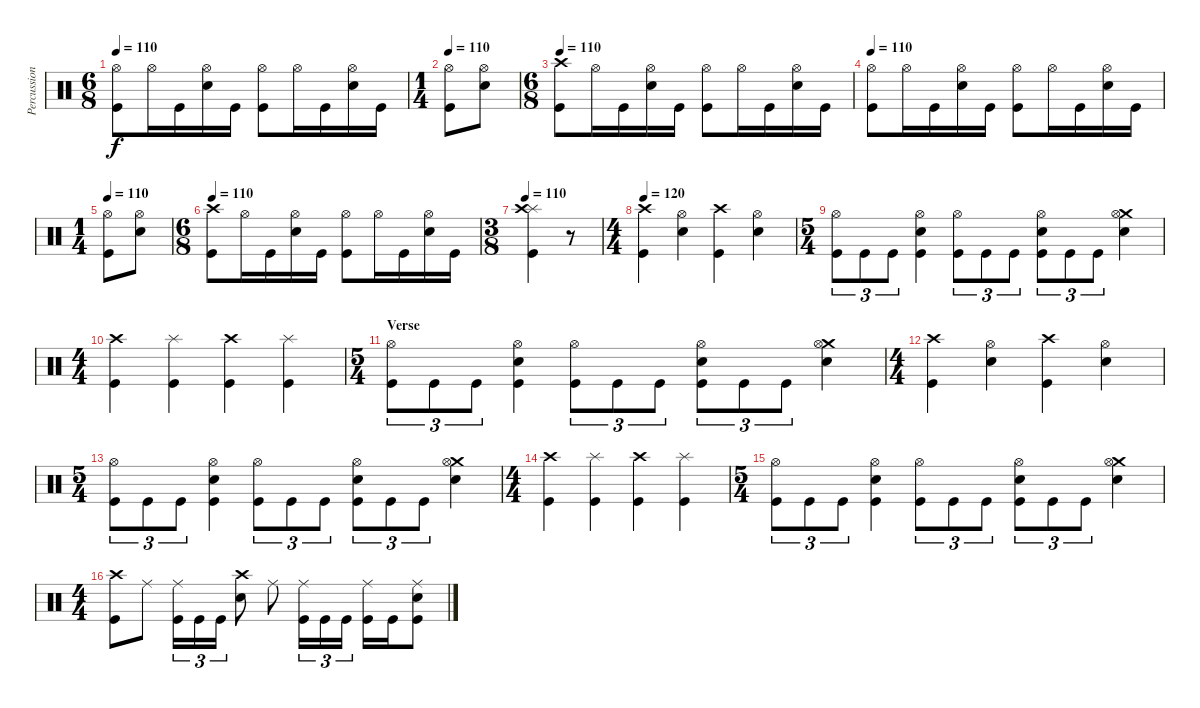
\track ("Percussion" "Percussion") {instrument percussion}
\staff {score}
\articulation defaults
\ts (6 8)
\tempo 110
\clef neutral
\ks c
("Hi-Hat (open)" "Kick (hit)").8{dy f} "Hi-Hat (open)".16 "Kick (hit)".16 ("Hi-Hat (open)" "Snare (hit) 2").16 "Kick (hit)".16 ("Hi-Hat (open)" "Kick (hit)").8 "Hi-Hat (open)".16 "Kick (hit)".16 ("Hi-Hat (open)" "Snare (hit) 2").16 "Kick (hit)".16 |
\ts (1 4)
\tempo 110
("Hi-Hat (open)" "Kick (hit)").8 ("Hi-Hat (open)" "Snare (hit) 2").8 |
\ts (6 8)
\tempo 110
("Crash high (hit)" "Kick (hit)").8 "Hi-Hat (open)".16 "Kick (hit)".16 ("Hi-Hat (open)" "Snare (hit) 2").16 "Kick (hit)".16 ("Hi-Hat (open)" "Kick (hit)").8 "Hi-Hat (open)".16 "Kick (hit)".16 ("Hi-Hat (open)" "Snare (hit) 2").16 "Kick (hit)".16 |
\tempo 110
("Hi-Hat (open)" "Kick (hit)").8 "Hi-Hat (open)".16 "Kick (hit)".16 ("Hi-Hat (open)" "Snare (hit) 2").16 "Kick (hit)".16 ("Hi-Hat (open)" "Kick (hit)").8 "Hi-Hat (open)".16 "Kick (hit)".16 ("Hi-Hat (open)" "Snare (hit) 2").16 "Kick (hit)".16 |
\ts (1 4)
\tempo 110
("Hi-Hat (open)" "Kick (hit)").8 ("Hi-Hat (open)" "Snare (hit) 2").8 |
\ts (6 8)
\tempo 110
("Crash high (hit)" "Kick (hit)").8 "Hi-Hat (open)".16 "Kick (hit)".16 ("Hi-Hat (open)" "Snare (hit) 2").16 "Kick (hit)".16 ("Hi-Hat (open)" "Kick (hit)").8 "Hi-Hat (open)".16 "Kick (hit)".16 ("Hi-Hat (open)" "Snare (hit) 2").16 "Kick (hit)".16 |
\ts (3 8)
\tempo 110
("Splash (hit)" "Crash high (hit)" "Kick (hit)").4 r.8 |
\ts (4 4)
\tempo 120
("Crash high (hit)" "Kick (hit)").4 ("Hi-Hat (open)" "Snare (hit) 2").4 ("Crash high (hit)" "Kick (hit)").4 ("Hi-Hat (open)" "Snare (hit) 2").4 |
\ts (5 4)
("Hi-Hat (open)" "Kick (hit)").8{tu (3 2)} "Kick (hit)".8{tu (3 2)} "Kick (hit)".8{tu (3 2)} ("Hi-Hat (open)" "Snare (hit) 2" "Kick (hit)").4 ("Hi-Hat (open)" "Kick (hit)").8{tu (3 2)} "Kick (hit)".8{tu (3 2)} "Kick (hit)".8{tu (3 2)} ("Hi-Hat (open)" "Snare (hit) 2" "Kick (hit)").8{tu (3 2)} "Kick (hit)".8{tu (3 2)} "Kick (hit)".8{tu (3 2)} ("Crash medium (hit)" "Hi-Hat (open)" "Snare (hit) 2").4 |
\ts (4 4)
("Crash high (hit)" "Kick (hit)").4 ("Splash (hit)" "Kick (hit)").4 ("Crash high (hit)" "Kick (hit)").4 ("Splash (hit)" "Kick (hit)").4 |
\ts (5 4)
\section ("" "Verse")
("Hi-Hat (open)" "Kick (hit)").8{tu (3 2)} "Kick (hit)".8{tu (3 2)} "Kick (hit)".8{tu (3 2)} ("Hi-Hat (open)" "Snare (hit) 2" "Kick (hit)").4 ("Hi-Hat (open)" "Kick (hit)").8{tu (3 2)} "Kick (hit)".8{tu (3 2)} "Kick (hit)".8{tu (3 2)} ("Hi-Hat (open)" "Snare (hit) 2" "Kick (hit)").8{tu (3 2)} "Kick (hit)".8{tu (3 2)} "Kick (hit)".8{tu (3 2)} ("Crash medium (hit)" "Hi-Hat (open)" "Snare (hit) 2").4 |
\ts (4 4)
("Crash high (hit)" "Kick (hit)").4 ("Hi-Hat (open)" "Snare (hit) 2").4 ("Crash high (hit)" "Kick (hit)").4 ("Hi-Hat (open)" "Snare (hit) 2").4 |
\ts (5 4)
("Hi-Hat (open)" "Kick (hit)").8{tu (3 2)} "Kick (hit)".8{tu (3 2)} "Kick (hit)".8{tu (3 2)} ("Hi-Hat (open)" "Snare (hit) 2" "Kick (hit)").4 ("Hi-Hat (open)" "Kick (hit)").8{tu (3 2)} "Kick (hit)".8{tu (3 2)} "Kick (hit)".8{tu (3 2)} ("Hi-Hat (open)" "Snare (hit) 2" "Kick (hit)").8{tu (3 2)} "Kick (hit)".8{tu (3 2)} "Kick (hit)".8{tu (3 2)} ("Crash medium (hit)" "Hi-Hat (open)" "Snare (hit) 2").4 |
\ts (4 4)
("Crash high (hit)" "Kick (hit)").4 ("Splash (hit)" "Kick (hit)").4 ("Crash high (hit)" "Kick (hit)").4 ("Splash (hit)" "Kick (hit)").4 |
\ts (5 4)
("Hi-Hat (open)" "Kick (hit)").8{tu (3 2)} "Kick (hit)".8{tu (3 2)} "Kick (hit)".8{tu (3 2)} ("Hi-Hat (open)" "Snare (hit) 2" "Kick (hit)").4 ("Hi-Hat (open)" "Kick (hit)").8{tu (3 2)} "Kick (hit)".8{tu (3 2)} "Kick (hit)".8{tu (3 2)} ("Hi-Hat (open)" "Snare (hit) 2" "Kick (hit)").8{tu (3 2)} "Kick (hit)".8{tu (3 2)} "Kick (hit)".8{tu (3 2)} ("Crash medium (hit)" "Hi-Hat (open)" "Snare (hit) 2").4 |
\ts (4 4)
("Crash high (hit)" "Kick (hit)").8 "Ride (middle)".8 ("Ride (middle)" "Kick (hit)").16{tu (3 2)} "Kick (hit)".16{tu (3 2)} "Kick (hit)".16{tu (3 2)} ("Crash high (hit)" "Snare (hit) 2").8 "Ride (middle)".8 ("Ride (middle)" "Kick (hit)").16{tu (3 2)} "Kick (hit)".16{tu (3 2)} "Kick (hit)".16{tu (3 2)} ("Ride (middle)" "Kick (hit)").16 "Kick (hit)".16 ("Ride (middle)" "Snare (hit) 2" "Kick (hit)").8
